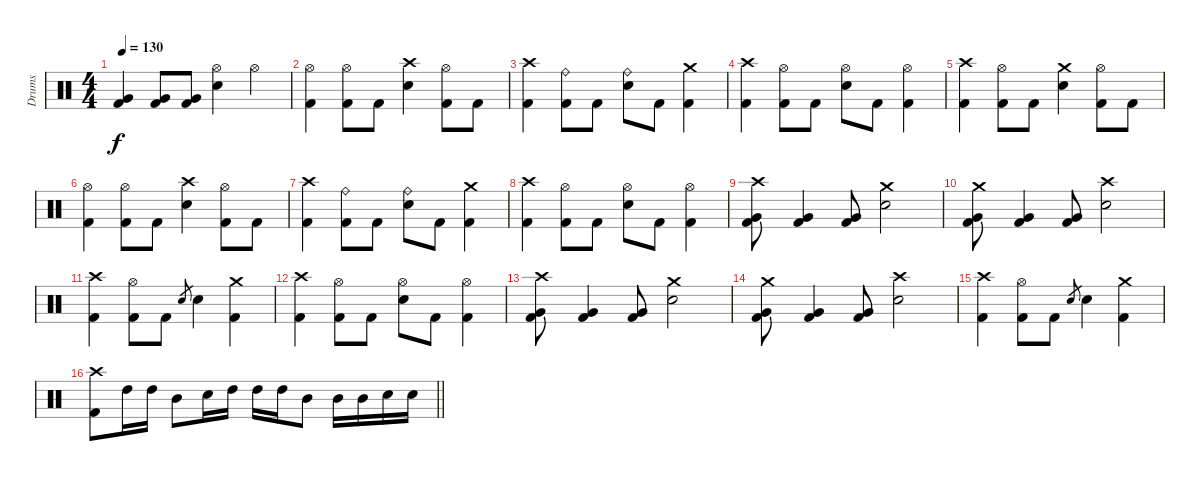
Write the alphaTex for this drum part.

\track ("Drums" "Drums") {instrument percussion}
\staff {score}
\articulation defaults
\ts (4 4)
\tempo 130
\clef neutral
\ks c
("Very Low Tom (hit)" "Kick (hit) 2").4{dy f} ("Very Low Tom (hit)" "Kick (hit) 2").8 ("Very Low Tom (hit)" "Kick (hit) 2").8 ("Hi-Hat (open)" "Electric Snare (hit)").4 "Hi-Hat (open)".4 |
("Hi-Hat (open)" "Kick (hit) 2").4 ("Hi-Hat (open)" "Kick (hit) 2").8 "Kick (hit) 2".8 ("Crash high (hit)" "Electric Snare (hit)").4 ("Hi-Hat (open)" "Kick (hit) 2").8 "Kick (hit) 2".8 |
("Crash high (hit)" "Kick (hit) 2").4 ("Ride (bell)" "Kick (hit) 2").8 "Kick (hit) 2".8 ("Ride (bell)" "Electric Snare (hit)").8 "Kick (hit) 2".8 ("Crash medium (hit)" "Kick (hit) 2").4 |
("Crash high (hit)" "Kick (hit) 2").4 ("Hi-Hat (open)" "Kick (hit) 2").8 "Kick (hit) 2".8 ("Hi-Hat (open)" "Electric Snare (hit)").8 "Kick (hit) 2".8 ("Hi-Hat (open)" "Kick (hit) 2").4 |
("Crash high (hit)" "Kick (hit) 2").4 ("Hi-Hat (open)" "Kick (hit) 2").8 "Kick (hit) 2".8 ("Crash medium (hit)" "Electric Snare (hit)").4 ("Hi-Hat (open)" "Kick (hit) 2").8 "Kick (hit) 2".8 |
("Hi-Hat (open)" "Kick (hit) 2").4 ("Hi-Hat (open)" "Kick (hit) 2").8 "Kick (hit) 2".8 ("Crash high (hit)" "Electric Snare (hit)").4 ("Hi-Hat (open)" "Kick (hit) 2").8 "Kick (hit) 2".8 |
("Crash high (hit)" "Kick (hit) 2").4 ("Ride (bell)" "Kick (hit) 2").8 "Kick (hit) 2".8 ("Ride (bell)" "Electric Snare (hit)").8 "Kick (hit) 2".8 ("Crash medium (hit)" "Kick (hit) 2").4 |
("Crash high (hit)" "Kick (hit) 2").4 ("Hi-Hat (open)" "Kick (hit) 2").8 "Kick (hit) 2".8 ("Hi-Hat (open)" "Electric Snare (hit)").8 "Kick (hit) 2".8 ("Hi-Hat (open)" "Kick (hit) 2").4 |
("Crash high (hit)" "Very Low Tom (hit)" "Kick (hit) 2").8 ("Very Low Tom (hit)" "Kick (hit) 2").4 ("Very Low Tom (hit)" "Kick (hit) 2").8 ("Crash medium (hit)" "Electric Snare (hit)").2 |
("Crash medium (hit)" "Very Low Tom (hit)" "Kick (hit) 2").8 ("Very Low Tom (hit)" "Kick (hit) 2").4 ("Very Low Tom (hit)" "Kick (hit) 2").8 ("Crash high (hit)" "Electric Snare (hit)").2 |
("Crash high (hit)" "Kick (hit) 2").4 ("Hi-Hat (open)" "Kick (hit) 2").8 "Kick (hit) 2".8 "Electric Snare (hit)".8{gr} "Electric Snare (hit)".4 ("Crash medium (hit)" "Kick (hit) 2").4 |
("Crash high (hit)" "Kick (hit) 2").4 ("Hi-Hat (open)" "Kick (hit) 2").8 "Kick (hit) 2".8 ("Hi-Hat (open)" "Electric Snare (hit)").8 "Kick (hit) 2".8 ("Hi-Hat (open)" "Kick (hit) 2").4 |
("Crash high (hit)" "Very Low Tom (hit)" "Kick (hit) 2").8 ("Very Low Tom (hit)" "Kick (hit) 2").4 ("Very Low Tom (hit)" "Kick (hit) 2").8 ("Crash medium (hit)" "Electric Snare (hit)").2 |
("Crash medium (hit)" "Very Low Tom (hit)" "Kick (hit) 2").8 ("Very Low Tom (hit)" "Kick (hit) 2").4 ("Very Low Tom (hit)" "Kick (hit) 2").8 ("Crash high (hit)" "Electric Snare (hit)").2 |
("Crash high (hit)" "Kick (hit) 2").4 ("Hi-Hat (open)" "Kick (hit) 2").8 "Kick (hit) 2".8 "Electric Snare (hit)".8{gr} "Electric Snare (hit)".4 ("Crash medium (hit)" "Kick (hit) 2").4 |
\barLineRight lightlight
("Crash high (hit)" "Kick (hit) 2").8 "High Tom (hit)".16 "High Tom (hit)".16 "Mid Tom (hit)".8 "Electric Snare (hit)".16 "High Tom (hit)".16 "High Tom (hit)".16 "High Tom (hit)".16 "Mid Tom (hit)".8 "Mid Tom (hit)".16 "Mid Tom (hit)".16 "Electric Snare (hit)".16 "Electric Snare (hit)".16
